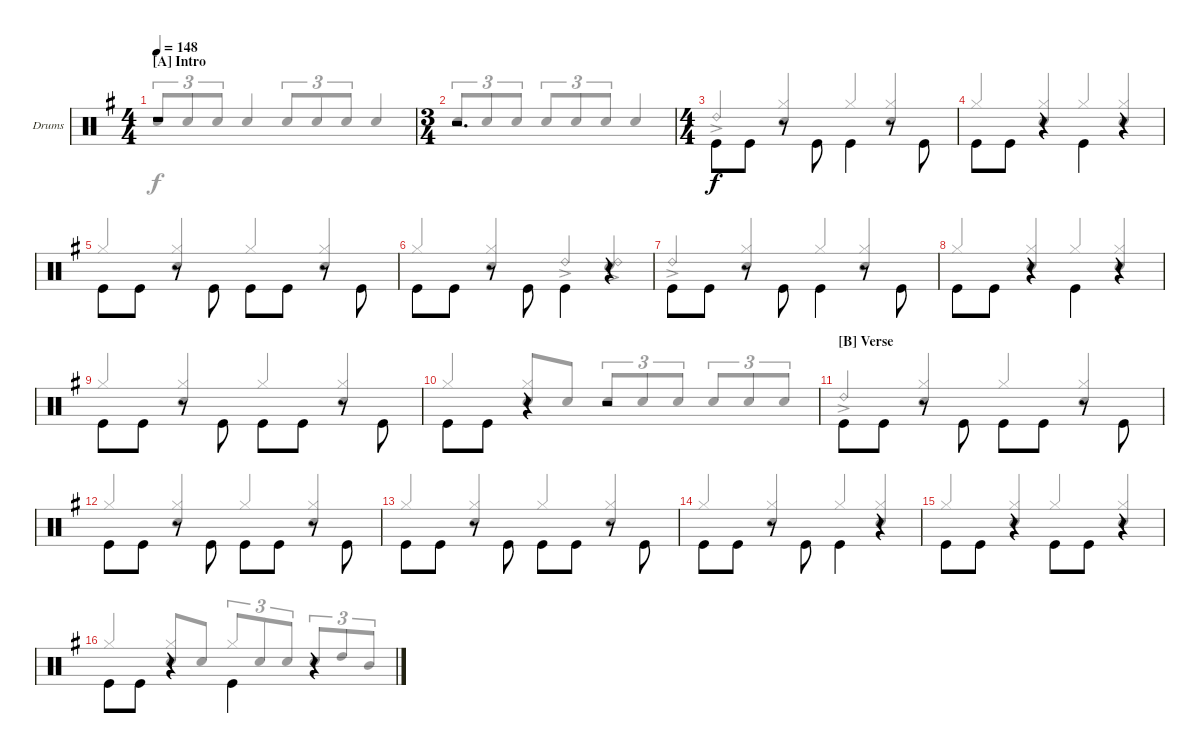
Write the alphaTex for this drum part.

\bracketExtendMode groupsimilarinstruments
\firstSystemTrackNameOrientation horizontal
\otherSystemsTrackNameOrientation horizontal
\track ("Drumkit" "Drums") {instrument percussion}
\staff {score}
\articulation defaults
\voice
\ts (4 4)
\section ("A" "Intro")
\tempo 148
\clef neutral
\scale
1.07314
\ks g
r.1{dy f} |
\ts (3 4)
\scale
0.92686 r.2{d} |
\ts (4 4)
\scale
1.07314 "Kick (hit)".8{beam invert} "Kick (hit)".8 r.8{beam invert} "Kick (hit)".8{beam invert} "Kick (hit)".4{beam invert} r.8{beam invert} "Kick (hit)".8{beam invert} |
\scale
0.92686 "Kick (hit)".8{beam invert} "Kick (hit)".8 r.4{beam invert} "Kick (hit)".4{beam invert} r.4 |
\scale
1.04288 "Kick (hit)".8{beam invert} "Kick (hit)".8 r.8{beam invert} "Kick (hit)".8{beam invert} "Kick (hit)".8{beam invert} "Kick (hit)".8 r.8{beam invert} "Kick (hit)".8{beam invert} |
\scale
0.957125 "Kick (hit)".8{beam invert} "Kick (hit)".8 r.8{beam invert} "Kick (hit)".8{beam invert} "Kick (hit)".4{beam invert} r.4 |
\scale
1.04288 "Kick (hit)".8{beam invert} "Kick (hit)".8 r.8{beam invert} "Kick (hit)".8{beam invert} "Kick (hit)".4{beam invert} r.8{beam invert} "Kick (hit)".8{beam invert} |
\scale
0.957125 "Kick (hit)".8{beam invert} "Kick (hit)".8 r.4{beam invert} "Kick (hit)".4{beam invert} r.4 |
\scale
1.04288 "Kick (hit)".8{beam invert} "Kick (hit)".8 r.8{beam invert} "Kick (hit)".8{beam invert} "Kick (hit)".8{beam invert} "Kick (hit)".8 r.8{beam invert} "Kick (hit)".8{beam invert} |
\scale
0.957125 "Kick (hit)".8{beam invert} "Kick (hit)".8 r.4{beam invert} r.2 |
\section ("B" "Verse")
\scale
1.04288 "Kick (hit)".8{beam invert} "Kick (hit)".8 r.8{beam invert} "Kick (hit)".8{beam invert} "Kick (hit)".8{beam invert} "Kick (hit)".8 r.8{beam invert} "Kick (hit)".8{beam invert} |
\scale
0.957125 "Kick (hit)".8{beam invert} "Kick (hit)".8 r.8{beam invert} "Kick (hit)".8{beam invert} "Kick (hit)".8{beam invert} "Kick (hit)".8 r.8{beam invert} "Kick (hit)".8{beam invert} |
\scale
1.04288 "Kick (hit)".8{beam invert} "Kick (hit)".8 r.8{beam invert} "Kick (hit)".8{beam invert} "Kick (hit)".8{beam invert} "Kick (hit)".8 r.8{beam invert} "Kick (hit)".8{beam invert} |
\scale
0.957125 "Kick (hit)".8{beam invert} "Kick (hit)".8 r.8{beam invert} "Kick (hit)".8{beam invert} "Kick (hit)".4{beam invert} r.4{beam invert} |
\scale
1.04288 "Kick (hit)".8{beam invert} "Kick (hit)".8 r.4{beam invert} "Kick (hit)".8{beam invert} "Kick (hit)".8 r.4{beam invert} |
\scale
0.957125 "Kick (hit)".8{beam invert} "Kick (hit)".8 r.4{beam invert} "Kick (hit)".4{beam invert} r.4
\voice
\clef neutral
\ottava regular
\simile none
\scale
1.07314
\ks g "Snare (hit) 2".8{tu (3 2) dy f beam invert} "Snare (hit) 2".8{tu (3 2)} "Snare (hit) 2".8{tu (3 2)} "Snare (hit) 2".4{beam invert} "Snare (hit) 2".8{tu (3 2) beam invert} "Snare (hit) 2".8{tu (3 2)} "Snare (hit) 2".8{tu (3 2)} "Snare (hit) 2".4{beam invert}
|
\scale
0.92686 "Snare (hit) 2".8{tu (3 2) beam invert} "Snare (hit) 2".8{tu (3 2)} "Snare (hit) 2".8{tu (3 2)} "Snare (hit) 2".8{tu (3 2) beam invert} "Snare (hit) 2".8{tu (3 2)} "Snare (hit) 2".8{tu (3 2)} "Snare (hit) 2".4{beam invert} |
\scale
1.07314 "Ride (bell) 2"{ac}.4{beam invert} ("Hi-Hat (closed)" "Snare (hit) 2").4{beam invert} "Hi-Hat (closed)".4{beam invert} ("Hi-Hat (closed)" "Snare (hit) 2").4{beam invert} |
\scale
0.92686 "Hi-Hat (closed)".4{beam invert} ("Hi-Hat (closed)" "Snare (hit) 2").4{beam invert} "Hi-Hat (closed)".4{beam invert} ("Hi-Hat (closed)" "Snare (hit) 2").4{beam invert} |
\scale
1.04288 "Hi-Hat (closed)".4{beam invert} ("Hi-Hat (closed)" "Snare (hit) 2").4{beam invert} "Hi-Hat (closed)".4{beam invert} ("Hi-Hat (closed)" "Snare (hit) 2").4{beam invert} |
\scale
0.957125 "Hi-Hat (closed)".4{beam invert} ("Hi-Hat (closed)" "Snare (hit) 2").4{beam invert} "Ride (bell) 2"{ac}.4{beam invert} ("Ride (bell) 2" "Snare (hit) 2"{ac}).4{beam invert} |
\scale
1.04288 "Ride (bell) 2"{ac}.4{beam invert} ("Hi-Hat (closed)" "Snare (hit) 2").4{beam invert} "Hi-Hat (closed)".4{beam invert} ("Hi-Hat (closed)" "Snare (hit) 2").4{beam invert} |
\scale
0.957125 "Hi-Hat (closed)".4{beam invert} ("Hi-Hat (closed)" "Snare (hit) 2").4{beam invert} "Hi-Hat (closed)".4{beam invert} ("Hi-Hat (closed)" "Snare (hit) 2").4{beam invert} |
\scale
1.04288 "Hi-Hat (closed)".4{beam invert} ("Hi-Hat (closed)" "Snare (hit) 2").4{beam invert} "Hi-Hat (closed)".4{beam invert} ("Hi-Hat (closed)" "Snare (hit) 2").4{beam invert} |
\scale
0.957125 "Hi-Hat (closed)".4{beam invert} ("Hi-Hat (closed)" "Snare (hit) 2").8{beam invert} "Snare (hit) 2".8 "Snare (hit) 2".8{tu (3 2) beam invert} "Snare (hit) 2".8{tu (3 2)} "Snare (hit) 2".8{tu (3 2)} "Snare (hit) 2".8{tu (3 2) beam invert} "Snare (hit) 2".8{tu (3 2)} "Snare (hit) 2".8{tu (3 2)} |
\scale
1.04288 "Ride (bell) 2"{ac}.4{beam invert} ("Hi-Hat (closed)" "Snare (hit) 2").4{beam invert} "Hi-Hat (closed)".4{beam invert} ("Hi-Hat (closed)" "Snare (hit) 2").4{beam invert} |
\scale
0.957125 "Hi-Hat (closed)".4{beam invert} ("Hi-Hat (closed)" "Snare (hit) 2").4{beam invert} "Hi-Hat (closed)".4{beam invert} ("Hi-Hat (closed)" "Snare (hit) 2").4{beam invert} |
\scale
1.04288 "Hi-Hat (closed)".4{beam invert} ("Hi-Hat (closed)" "Snare (hit) 2").4{beam invert} "Hi-Hat (closed)".4{beam invert} ("Hi-Hat (closed)" "Snare (hit) 2").4{beam invert} |
\scale
0.957125 "Hi-Hat (closed)".4{beam invert} ("Hi-Hat (closed)" "Snare (hit) 2").4{beam invert} "Hi-Hat (closed)".4{beam invert} ("Hi-Hat (closed)" "Snare (hit) 2").4{beam invert} |
\scale
1.04288 "Hi-Hat (closed)".4{beam invert} ("Hi-Hat (closed)" "Snare (hit) 2").4{beam invert} "Hi-Hat (closed)".4{beam invert} ("Hi-Hat (closed)" "Snare (hit) 2").4{beam invert} |
\scale
0.957125 "Hi-Hat (closed)".4{beam invert} ("Hi-Hat (closed)" "Snare (hit) 2").8{beam invert} "Snare (hit) 2".8 "Hi-Hat (closed)".8{tu (3 2) beam invert} "Snare (hit) 2".8{tu (3 2)} "Snare (hit) 2".8{tu (3 2)} "Snare (hit) 2".8{tu (3 2) beam invert} "High Tom (hit)".8{tu (3 2)} "Mid Tom (hit)".8{tu (3 2)}
